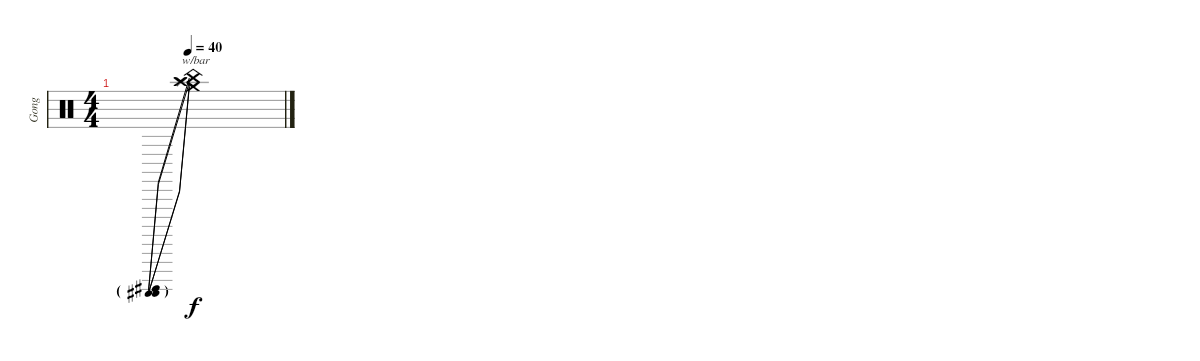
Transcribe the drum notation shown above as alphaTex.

\track ("Gong" "Gong") {instrument percussion}
\staff {score}
\articulation defaults
\ts (4 4)
\tempo 40
\clef neutral
\ks c
("Crash medium (hit)" "Splash (hit)" "China (hit)" "Crash high (hit)").1{tbe (predive default 0 -24 60 -24) dy f}
